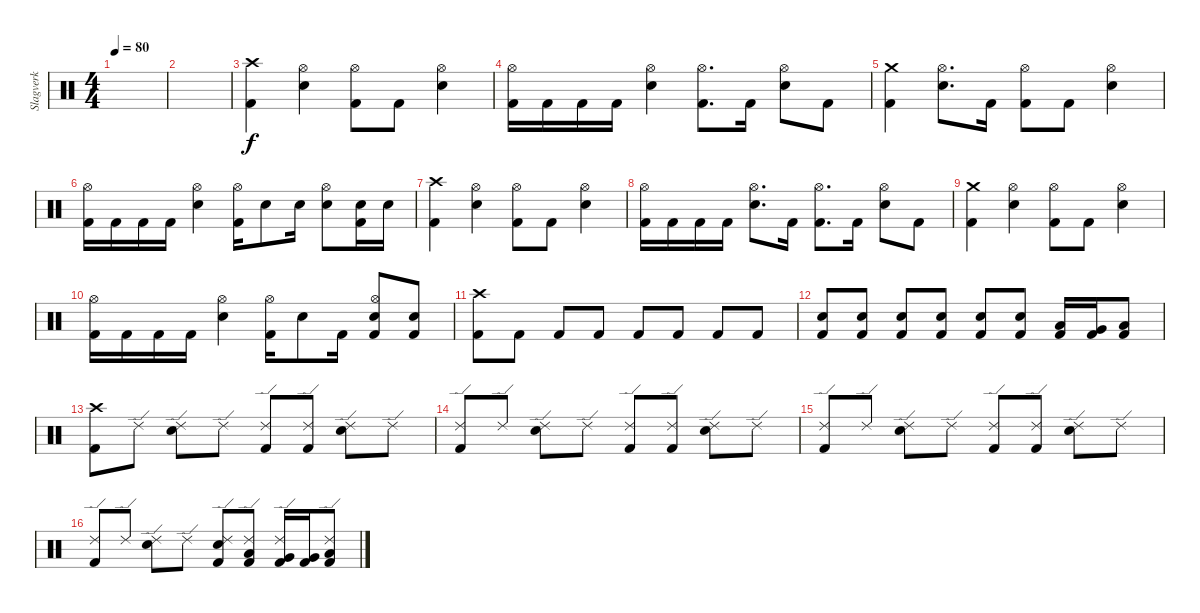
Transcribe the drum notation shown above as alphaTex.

\track ("Slagverk" "Slagverk") {instrument percussion}
\staff {score}
\articulation defaults
\ts (4 4)
\tempo 80
\clef neutral
\ks c
|
|
("Crash high (hit)" "Kick (hit) 2").4 ("Hi-Hat (open)" "Snare (hit) 2").4 ("Hi-Hat (open)" "Kick (hit) 2").8 "Kick (hit) 2".8 ("Hi-Hat (open)" "Snare (hit) 2").4 |
("Hi-Hat (open)" "Kick (hit) 2").16 "Kick (hit) 2".16 "Kick (hit) 2".16 "Kick (hit) 2".16 ("Hi-Hat (open)" "Snare (hit) 2").4 ("Hi-Hat (open)" "Kick (hit) 2").8{d} "Kick (hit) 2".16 ("Hi-Hat (open)" "Snare (hit) 2").8 "Kick (hit) 2".8 |
("Crash medium (hit)" "Kick (hit) 2").4 ("Hi-Hat (open)" "Snare (hit) 2").8{d} "Kick (hit) 2".16 ("Hi-Hat (open)" "Kick (hit) 2").8 "Kick (hit) 2".8 ("Hi-Hat (open)" "Snare (hit) 2").4 |
("Hi-Hat (open)" "Kick (hit) 2").16 "Kick (hit) 2".16 "Kick (hit) 2".16 "Kick (hit) 2".16 ("Hi-Hat (open)" "Snare (hit) 2").4 ("Hi-Hat (open)" "Kick (hit) 2").16 "Snare (hit) 2".8 "Snare (hit) 2".16 ("Hi-Hat (open)" "Snare (hit) 2").8 ("Snare (hit) 2" "Kick (hit) 2").16 "Snare (hit) 2".16 |
("Crash high (hit)" "Kick (hit) 2").4 ("Hi-Hat (open)" "Snare (hit) 2").4 ("Hi-Hat (open)" "Kick (hit) 2").8 "Kick (hit) 2".8 ("Hi-Hat (open)" "Snare (hit) 2").4 |
("Hi-Hat (open)" "Kick (hit) 2").16 "Kick (hit) 2".16 "Kick (hit) 2".16 "Kick (hit) 2".16 ("Hi-Hat (open)" "Snare (hit) 2").8{d} "Kick (hit) 2".16 ("Hi-Hat (open)" "Kick (hit) 2").8{d} "Kick (hit) 2".16 ("Hi-Hat (open)" "Snare (hit) 2").8 "Kick (hit) 2".8 |
("Crash medium (hit)" "Kick (hit) 2").4 ("Hi-Hat (open)" "Snare (hit) 2").4 ("Hi-Hat (open)" "Kick (hit) 2").8 "Kick (hit) 2".8 ("Hi-Hat (open)" "Snare (hit) 2").4 |
("Hi-Hat (open)" "Kick (hit) 2").16 "Kick (hit) 2".16 "Kick (hit) 2".16 "Kick (hit) 2".16 ("Hi-Hat (open)" "Snare (hit) 2").4 ("Hi-Hat (open)" "Kick (hit) 2").16 "Snare (hit) 2".8 "Kick (hit) 2".16 ("Hi-Hat (open)" "Snare (hit) 2" "Kick (hit) 2").8 ("Snare (hit) 2" "Kick (hit) 2").8 |
("Crash high (hit)" "Kick (hit) 2").8 "Kick (hit) 2".8 "Kick (hit) 2".8 "Kick (hit) 2".8 "Kick (hit) 2".8 "Kick (hit) 2".8 "Kick (hit) 2".8 "Kick (hit) 2".8 |
("Snare (hit) 2" "Kick (hit) 2").8 ("Snare (hit) 2" "Kick (hit) 2").8 ("Snare (hit) 2" "Kick (hit) 2").8 ("Snare (hit) 2" "Kick (hit) 2").8 ("Snare (hit) 2" "Kick (hit) 2").8 ("Snare (hit) 2" "Kick (hit) 2").8 ("Low Tom (hit)" "Kick (hit) 2").16 ("Very Low Tom (hit)" "Kick (hit) 2").16 ("Low Floor Tom (hit)" "Kick (hit) 2").8 |
("Crash high (hit)" "Kick (hit) 2").8 "Ride (edge) 2".8 ("Ride (edge) 2" "Snare (hit) 2").8 "Ride (edge) 2".8 ("Ride (edge) 2" "Kick (hit) 2").8 ("Ride (edge) 2" "Kick (hit) 2").8 ("Ride (edge) 2" "Snare (hit) 2").8 "Ride (edge) 2".8 |
("Ride (edge) 2" "Kick (hit) 2").8 "Ride (edge) 2".8 ("Ride (edge) 2" "Snare (hit) 2").8 "Ride (edge) 2".8 ("Ride (edge) 2" "Kick (hit) 2").8 ("Ride (edge) 2" "Kick (hit) 2").8 ("Ride (edge) 2" "Snare (hit) 2").8 "Ride (edge) 2".8 |
("Ride (edge) 2" "Kick (hit) 2").8 "Ride (edge) 2".8 ("Ride (edge) 2" "Snare (hit) 2").8 "Ride (edge) 2".8 ("Ride (edge) 2" "Kick (hit) 2").8 ("Ride (edge) 2" "Kick (hit) 2").8 ("Ride (edge) 2" "Snare (hit) 2").8 "Ride (edge) 2".8 |
("Ride (edge) 2" "Kick (hit) 2").8 "Ride (edge) 2".8 ("Ride (edge) 2" "Snare (hit) 2").8 "Ride (edge) 2".8 ("Ride (edge) 2" "Snare (hit) 2" "Kick (hit) 2").8 ("Ride (edge) 2" "Low Tom (hit)" "Kick (hit) 2").8 ("Ride (edge) 2" "Very Low Tom (hit)" "Kick (hit) 2").16 ("Very Low Tom (hit)" "Kick (hit) 2").16 ("Ride (edge) 2" "Low Floor Tom (hit)" "Kick (hit) 2").8
